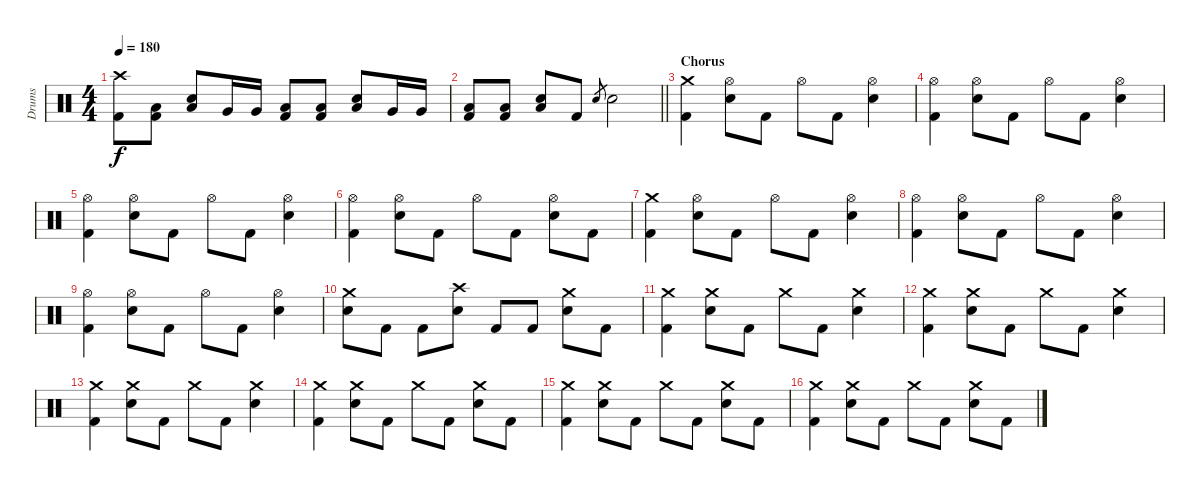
\track ("Drums" "Drums") {instrument percussion}
\staff {score}
\articulation defaults
\ts (4 4)
\tempo 180
\clef neutral
\ks c
("Crash high (hit)" "Kick (hit) 2").8{dy f} ("Low Floor Tom (hit)" "Kick (hit) 2").8 ("Low Floor Tom (hit)" "Electric Snare (hit)").8 "Very Low Tom (hit)".16 "Very Low Tom (hit)".16 ("Low Floor Tom (hit)" "Kick (hit) 2").8 ("Low Floor Tom (hit)" "Kick (hit) 2").8 ("Low Floor Tom (hit)" "Electric Snare (hit)").8 "Very Low Tom (hit)".16 "Very Low Tom (hit)".16 |
\barLineRight lightlight
("Low Floor Tom (hit)" "Kick (hit) 2").8 ("Low Floor Tom (hit)" "Kick (hit) 2").8 ("Low Floor Tom (hit)" "Electric Snare (hit)").8 "Kick (hit) 2".8 "Electric Snare (hit)".8{gr} "Electric Snare (hit)".2 |
\section ("" "Chorus")
("Crash medium (hit)" "Kick (hit) 2").4 ("Hi-Hat (open)" "Electric Snare (hit)").8 "Kick (hit) 2".8 "Hi-Hat (open)".8 "Kick (hit) 2".8 ("Hi-Hat (open)" "Electric Snare (hit)").4 |
("Hi-Hat (open)" "Kick (hit) 2").4 ("Hi-Hat (open)" "Electric Snare (hit)").8 "Kick (hit) 2".8 "Hi-Hat (open)".8 "Kick (hit) 2".8 ("Hi-Hat (open)" "Electric Snare (hit)").4 |
("Hi-Hat (open)" "Kick (hit) 2").4 ("Hi-Hat (open)" "Electric Snare (hit)").8 "Kick (hit) 2".8 "Hi-Hat (open)".8 "Kick (hit) 2".8 ("Hi-Hat (open)" "Electric Snare (hit)").4 |
("Hi-Hat (open)" "Kick (hit) 2").4 ("Hi-Hat (open)" "Electric Snare (hit)").8 "Kick (hit) 2".8 "Hi-Hat (open)".8 "Kick (hit) 2".8 ("Hi-Hat (open)" "Electric Snare (hit)").8 "Kick (hit) 2".8 |
("Crash medium (hit)" "Kick (hit) 2").4 ("Hi-Hat (open)" "Electric Snare (hit)").8 "Kick (hit) 2".8 "Hi-Hat (open)".8 "Kick (hit) 2".8 ("Hi-Hat (open)" "Electric Snare (hit)").4 |
("Hi-Hat (open)" "Kick (hit) 2").4 ("Hi-Hat (open)" "Electric Snare (hit)").8 "Kick (hit) 2".8 "Hi-Hat (open)".8 "Kick (hit) 2".8 ("Hi-Hat (open)" "Electric Snare (hit)").4 |
("Hi-Hat (open)" "Kick (hit) 2").4 ("Hi-Hat (open)" "Electric Snare (hit)").8 "Kick (hit) 2".8 "Hi-Hat (open)".8 "Kick (hit) 2".8 ("Hi-Hat (open)" "Electric Snare (hit)").4 |
("Crash medium (hit)" "Electric Snare (hit)").8 "Kick (hit) 2".8 "Kick (hit) 2".8 ("Crash high (hit)" "Electric Snare (hit)").8 "Kick (hit) 2".8 "Kick (hit) 2".8 ("Crash medium (hit)" "Electric Snare (hit)").8 "Kick (hit) 2".8 |
("Crash medium (hit)" "Kick (hit) 2").4 ("Crash medium (hit)" "Electric Snare (hit)").8 "Kick (hit) 2".8 "Crash medium (hit)".8 "Kick (hit) 2".8 ("Crash medium (hit)" "Electric Snare (hit)").4 |
("Crash medium (hit)" "Kick (hit) 2").4 ("Crash medium (hit)" "Electric Snare (hit)").8 "Kick (hit) 2".8 "Crash medium (hit)".8 "Kick (hit) 2".8 ("Crash medium (hit)" "Electric Snare (hit)").4 |
("Crash medium (hit)" "Kick (hit) 2").4 ("Crash medium (hit)" "Electric Snare (hit)").8 "Kick (hit) 2".8 "Crash medium (hit)".8 "Kick (hit) 2".8 ("Crash medium (hit)" "Electric Snare (hit)").4 |
("Crash medium (hit)" "Kick (hit) 2").4 ("Crash medium (hit)" "Electric Snare (hit)").8 "Kick (hit) 2".8 "Crash medium (hit)".8 "Kick (hit) 2".8 ("Crash medium (hit)" "Electric Snare (hit)").8 "Kick (hit) 2".8 |
("Crash medium (hit)" "Kick (hit) 2").4 ("Crash medium (hit)" "Electric Snare (hit)").8 "Kick (hit) 2".8 "Crash medium (hit)".8 "Kick (hit) 2".8 ("Crash medium (hit)" "Electric Snare (hit)").8 "Kick (hit) 2".8 |
("Crash medium (hit)" "Kick (hit) 2").4 ("Crash medium (hit)" "Electric Snare (hit)").8 "Kick (hit) 2".8 "Crash medium (hit)".8 "Kick (hit) 2".8 ("Crash medium (hit)" "Electric Snare (hit)").8 "Kick (hit) 2".8
